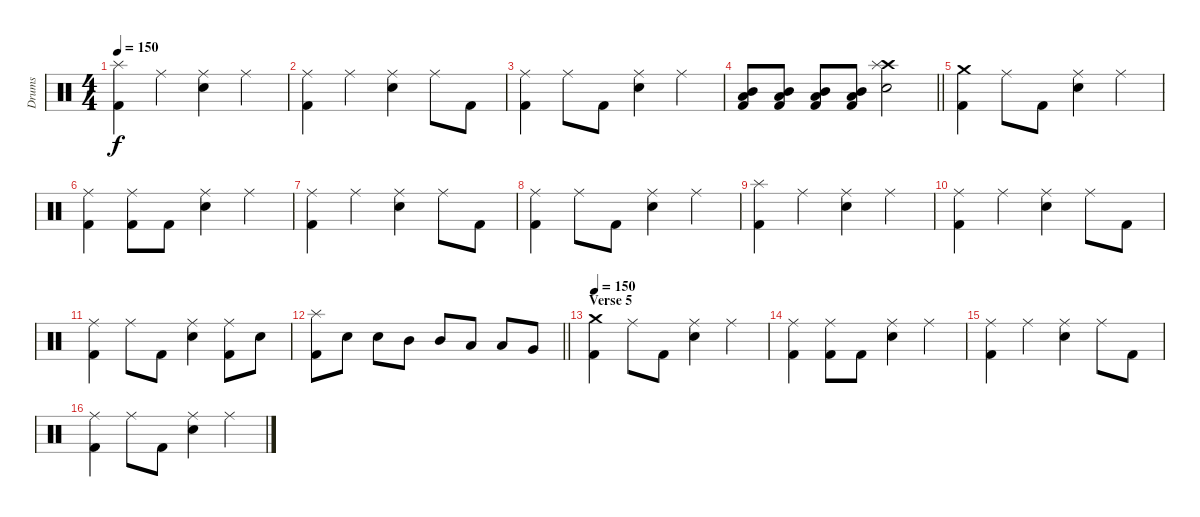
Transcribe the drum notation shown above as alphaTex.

\track ("Drums" "Drums") {instrument percussion}
\staff {score}
\articulation defaults
\ts (4 4)
\tempo 150
\clef neutral
\ks c
("Splash (hit)" "Kick (hit) 2").4{dy f} "Ride (middle)".4 ("Ride (middle)" "Electric Snare (hit)").4 "Ride (middle)".4 |
("Ride (middle)" "Kick (hit) 2").4 "Ride (middle)".4 ("Ride (middle)" "Electric Snare (hit)").4 "Ride (middle)".8 "Kick (hit) 2".8 |
("Ride (middle)" "Kick (hit) 2").4 "Ride (middle)".8 "Kick (hit) 2".8 ("Ride (middle)" "Electric Snare (hit)").4 "Ride (middle)".4 |
\barLineRight lightlight
("Mid Tom (hit)" "Low Tom (hit)" "Kick (hit) 2").8 ("Mid Tom (hit)" "Low Tom (hit)" "Kick (hit) 2").8 ("Mid Tom (hit)" "Low Tom (hit)" "Kick (hit) 2").8 ("Mid Tom (hit)" "Low Tom (hit)" "Kick (hit) 2").8 ("Crash high (hit)" "Splash (hit)" "Electric Snare (hit)").2 |
\section ("" "")
("Crash medium (hit)" "Kick (hit) 2").4 "Ride (middle)".8 "Kick (hit) 2".8 ("Ride (middle)" "Electric Snare (hit)").4 "Ride (middle)".4 |
("Ride (middle)" "Kick (hit) 2").4 ("Ride (middle)" "Kick (hit) 2").8 "Kick (hit) 2".8 ("Ride (middle)" "Electric Snare (hit)").4 "Ride (middle)".4 |
("Ride (middle)" "Kick (hit) 2").4 "Ride (middle)".4 ("Ride (middle)" "Electric Snare (hit)").4 "Ride (middle)".8 "Kick (hit) 2".8 |
("Ride (middle)" "Kick (hit) 2").4 "Ride (middle)".8 "Kick (hit) 2".8 ("Ride (middle)" "Electric Snare (hit)").4 "Ride (middle)".4 |
("Splash (hit)" "Kick (hit) 2").4 "Ride (middle)".4 ("Ride (middle)" "Electric Snare (hit)").4 "Ride (middle)".4 |
("Ride (middle)" "Kick (hit) 2").4 "Ride (middle)".4 ("Ride (middle)" "Electric Snare (hit)").4 "Ride (middle)".8 "Kick (hit) 2".8 |
("Ride (middle)" "Kick (hit) 2").4 "Ride (middle)".8 "Kick (hit) 2".8 ("Ride (middle)" "Electric Snare (hit)").4 ("Ride (middle)" "Kick (hit) 2").8 "Electric Snare (hit)".8 |
\barLineRight lightlight
("Splash (hit)" "Kick (hit) 2").8 "Electric Snare (hit)".8 "Electric Snare (hit)".8 "Mid Tom (hit)".8 "Mid Tom (hit)".8 "Low Tom (hit)".8 "Low Tom (hit)".8 "Very Low Tom (hit)".8 |
\section ("" "Verse 5")
\tempo 150
("Crash medium (hit)" "Kick (hit) 2").4 "Ride (middle)".8 "Kick (hit) 2".8 ("Ride (middle)" "Electric Snare (hit)").4 "Ride (middle)".4 |
("Ride (middle)" "Kick (hit) 2").4 ("Ride (middle)" "Kick (hit) 2").8 "Kick (hit) 2".8 ("Ride (middle)" "Electric Snare (hit)").4 "Ride (middle)".4 |
("Ride (middle)" "Kick (hit) 2").4 "Ride (middle)".4 ("Ride (middle)" "Electric Snare (hit)").4 "Ride (middle)".8 "Kick (hit) 2".8 |
("Ride (middle)" "Kick (hit) 2").4 "Ride (middle)".8 "Kick (hit) 2".8 ("Ride (middle)" "Electric Snare (hit)").4 "Ride (middle)".4
